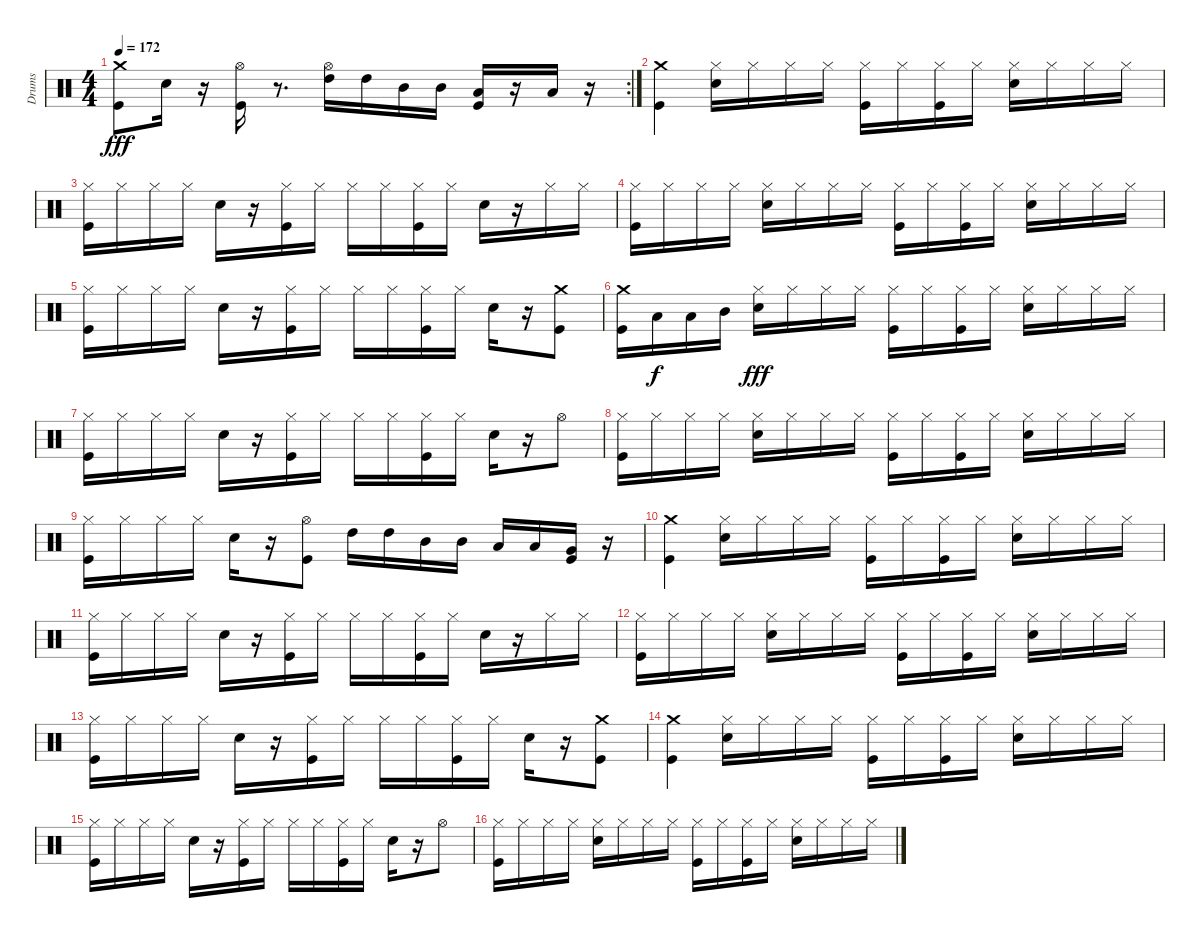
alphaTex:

\track ("Drums" "Drums") {instrument percussion}
\staff {score}
\articulation defaults
\rc 2
\ts (4 4)
\tempo 172
\clef neutral
\ks c
("Crash medium (hit)" "Kick (hit)").8{dy fff} "Snare (hit) 2".16 r.16 ("Hi-Hat (open)" "Kick (hit)").16 r.8{d} ("Hi-Hat (open)" "High Tom (hit)").16 "High Tom (hit)".16 "Mid Tom (hit)".16 "Mid Tom (hit)".16 ("Kick (hit)" "Low Tom (hit)").16 r.16 "Low Tom (hit)".16 r.16 |
("Crash medium (hit)" "Kick (hit)").4 ("Hi-Hat (closed)" "Snare (hit) 2").16 "Hi-Hat (closed)".16 "Hi-Hat (closed)".16 "Hi-Hat (closed)".16 ("Hi-Hat (closed)" "Kick (hit)").16 "Hi-Hat (closed)".16 ("Hi-Hat (closed)" "Kick (hit)").16 "Hi-Hat (closed)".16 ("Hi-Hat (closed)" "Snare (hit) 2").16 "Hi-Hat (closed)".16 "Hi-Hat (closed)".16 "Hi-Hat (closed)".16 |
("Hi-Hat (closed)" "Kick (hit)").16 "Hi-Hat (closed)".16 "Hi-Hat (closed)".16 "Hi-Hat (closed)".16 "Snare (hit) 2".16 r.16 ("Hi-Hat (closed)" "Kick (hit)").16 "Hi-Hat (closed)".16 "Hi-Hat (closed)".16 "Hi-Hat (closed)".16 ("Hi-Hat (closed)" "Kick (hit)").16 "Hi-Hat (closed)".16 "Snare (hit) 2".16 r.16 "Hi-Hat (closed)".16 "Hi-Hat (closed)".16 |
("Hi-Hat (closed)" "Kick (hit)").16 "Hi-Hat (closed)".16 "Hi-Hat (closed)".16 "Hi-Hat (closed)".16 ("Hi-Hat (closed)" "Snare (hit) 2").16 "Hi-Hat (closed)".16 "Hi-Hat (closed)".16 "Hi-Hat (closed)".16 ("Hi-Hat (closed)" "Kick (hit)").16 "Hi-Hat (closed)".16 ("Hi-Hat (closed)" "Kick (hit)").16 "Hi-Hat (closed)".16 ("Hi-Hat (closed)" "Snare (hit) 2").16 "Hi-Hat (closed)".16 "Hi-Hat (closed)".16 "Hi-Hat (closed)".16 |
("Hi-Hat (closed)" "Kick (hit)").16 "Hi-Hat (closed)".16 "Hi-Hat (closed)".16 "Hi-Hat (closed)".16 "Snare (hit) 2".16 r.16 ("Hi-Hat (closed)" "Kick (hit)").16 "Hi-Hat (closed)".16 "Hi-Hat (closed)".16 "Hi-Hat (closed)".16 ("Hi-Hat (closed)" "Kick (hit)").16 "Hi-Hat (closed)".16 "Snare (hit) 2".16 r.16 ("Crash medium (hit)" "Kick (hit)").8 |
("Crash medium (hit)" "Kick (hit)").16 "Low Tom (hit)".16{dy f} "Low Tom (hit)".16 "Mid Tom (hit)".16 ("Hi-Hat (closed)" "Snare (hit) 2").16{dy fff} "Hi-Hat (closed)".16 "Hi-Hat (closed)".16 "Hi-Hat (closed)".16 ("Hi-Hat (closed)" "Kick (hit)").16 "Hi-Hat (closed)".16 ("Hi-Hat (closed)" "Kick (hit)").16 "Hi-Hat (closed)".16 ("Hi-Hat (closed)" "Snare (hit) 2").16 "Hi-Hat (closed)".16 "Hi-Hat (closed)".16 "Hi-Hat (closed)".16 |
("Hi-Hat (closed)" "Kick (hit)").16 "Hi-Hat (closed)".16 "Hi-Hat (closed)".16 "Hi-Hat (closed)".16 "Snare (hit) 2".16 r.16 ("Hi-Hat (closed)" "Kick (hit)").16 "Hi-Hat (closed)".16 "Hi-Hat (closed)".16 "Hi-Hat (closed)".16 ("Hi-Hat (closed)" "Kick (hit)").16 "Hi-Hat (closed)".16 "Snare (hit) 2".16 r.16 "Hi-Hat (open)".8 |
("Hi-Hat (closed)" "Kick (hit)").16 "Hi-Hat (closed)".16 "Hi-Hat (closed)".16 "Hi-Hat (closed)".16 ("Hi-Hat (closed)" "Snare (hit) 2").16 "Hi-Hat (closed)".16 "Hi-Hat (closed)".16 "Hi-Hat (closed)".16 ("Hi-Hat (closed)" "Kick (hit)").16 "Hi-Hat (closed)".16 ("Hi-Hat (closed)" "Kick (hit)").16 "Hi-Hat (closed)".16 ("Hi-Hat (closed)" "Snare (hit) 2").16 "Hi-Hat (closed)".16 "Hi-Hat (closed)".16 "Hi-Hat (closed)".16 |
("Hi-Hat (closed)" "Kick (hit)").16 "Hi-Hat (closed)".16 "Hi-Hat (closed)".16 "Hi-Hat (closed)".16 "Snare (hit) 2".16 r.16 ("Hi-Hat (open)" "Kick (hit)").8 "High Tom (hit)".16 "High Tom (hit)".16 "Mid Tom (hit)".16 "Mid Tom (hit)".16 "Low Tom (hit)".16 "Low Tom (hit)".16 ("Kick (hit)" "Very Low Tom (hit)").16 r.16 |
("Crash medium (hit)" "Kick (hit)").4 ("Hi-Hat (closed)" "Snare (hit) 2").16 "Hi-Hat (closed)".16 "Hi-Hat (closed)".16 "Hi-Hat (closed)".16 ("Hi-Hat (closed)" "Kick (hit)").16 "Hi-Hat (closed)".16 ("Hi-Hat (closed)" "Kick (hit)").16 "Hi-Hat (closed)".16 ("Hi-Hat (closed)" "Snare (hit) 2").16 "Hi-Hat (closed)".16 "Hi-Hat (closed)".16 "Hi-Hat (closed)".16 |
("Hi-Hat (closed)" "Kick (hit)").16 "Hi-Hat (closed)".16 "Hi-Hat (closed)".16 "Hi-Hat (closed)".16 "Snare (hit) 2".16 r.16 ("Hi-Hat (closed)" "Kick (hit)").16 "Hi-Hat (closed)".16 "Hi-Hat (closed)".16 "Hi-Hat (closed)".16 ("Hi-Hat (closed)" "Kick (hit)").16 "Hi-Hat (closed)".16 "Snare (hit) 2".16 r.16 "Hi-Hat (closed)".16 "Hi-Hat (closed)".16 |
("Hi-Hat (closed)" "Kick (hit)").16 "Hi-Hat (closed)".16 "Hi-Hat (closed)".16 "Hi-Hat (closed)".16 ("Hi-Hat (closed)" "Snare (hit) 2").16 "Hi-Hat (closed)".16 "Hi-Hat (closed)".16 "Hi-Hat (closed)".16 ("Hi-Hat (closed)" "Kick (hit)").16 "Hi-Hat (closed)".16 ("Hi-Hat (closed)" "Kick (hit)").16 "Hi-Hat (closed)".16 ("Hi-Hat (closed)" "Snare (hit) 2").16 "Hi-Hat (closed)".16 "Hi-Hat (closed)".16 "Hi-Hat (closed)".16 |
("Hi-Hat (closed)" "Kick (hit)").16 "Hi-Hat (closed)".16 "Hi-Hat (closed)".16 "Hi-Hat (closed)".16 "Snare (hit) 2".16 r.16 ("Hi-Hat (closed)" "Kick (hit)").16 "Hi-Hat (closed)".16 "Hi-Hat (closed)".16 "Hi-Hat (closed)".16 ("Hi-Hat (closed)" "Kick (hit)").16 "Hi-Hat (closed)".16 "Snare (hit) 2".16 r.16 ("Crash medium (hit)" "Kick (hit)").8 |
("Crash medium (hit)" "Kick (hit)").4 ("Hi-Hat (closed)" "Snare (hit) 2").16 "Hi-Hat (closed)".16 "Hi-Hat (closed)".16 "Hi-Hat (closed)".16 ("Hi-Hat (closed)" "Kick (hit)").16 "Hi-Hat (closed)".16 ("Hi-Hat (closed)" "Kick (hit)").16 "Hi-Hat (closed)".16 ("Hi-Hat (closed)" "Snare (hit) 2").16 "Hi-Hat (closed)".16 "Hi-Hat (closed)".16 "Hi-Hat (closed)".16 |
("Hi-Hat (closed)" "Kick (hit)").16 "Hi-Hat (closed)".16 "Hi-Hat (closed)".16 "Hi-Hat (closed)".16 "Snare (hit) 2".16 r.16 ("Hi-Hat (closed)" "Kick (hit)").16 "Hi-Hat (closed)".16 "Hi-Hat (closed)".16 "Hi-Hat (closed)".16 ("Hi-Hat (closed)" "Kick (hit)").16 "Hi-Hat (closed)".16 "Snare (hit) 2".16 r.16 "Hi-Hat (open)".8 |
("Hi-Hat (closed)" "Kick (hit)").16 "Hi-Hat (closed)".16 "Hi-Hat (closed)".16 "Hi-Hat (closed)".16 ("Hi-Hat (closed)" "Snare (hit) 2").16 "Hi-Hat (closed)".16 "Hi-Hat (closed)".16 "Hi-Hat (closed)".16 ("Hi-Hat (closed)" "Kick (hit)").16 "Hi-Hat (closed)".16 ("Hi-Hat (closed)" "Kick (hit)").16 "Hi-Hat (closed)".16 ("Hi-Hat (closed)" "Snare (hit) 2").16 "Hi-Hat (closed)".16 "Hi-Hat (closed)".16 "Hi-Hat (closed)".16
